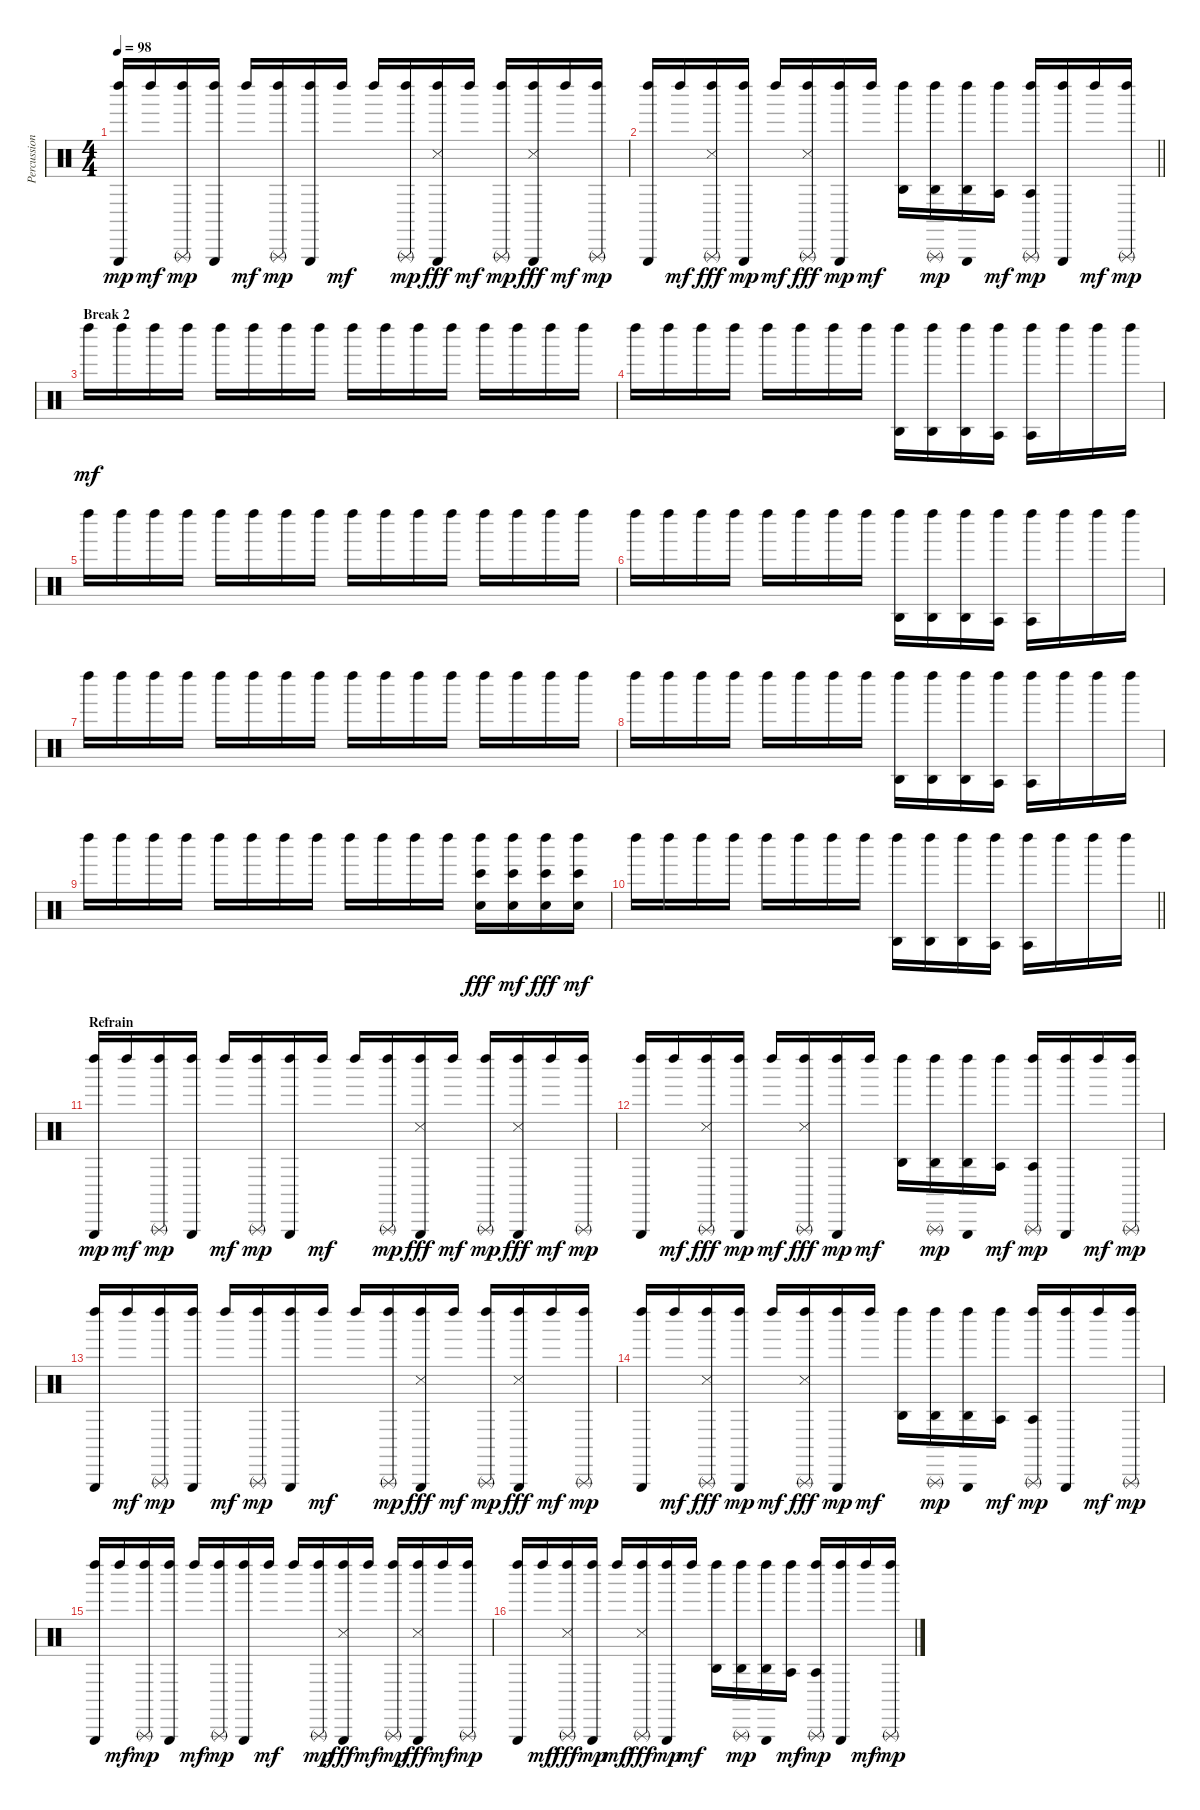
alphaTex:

\track ("Percussions (Dr-0)" "Percussion") {instrument percussion}
\staff {score}
\articulation defaults
\ts (4 4)
\tempo 98
\clef neutral
\ks c
("Left Maraca (hit)" "Triangle (hit)").16{dy mp} "Left Maraca (hit)".16{dy mf} ("Left Maraca (hit)" "Triangle (rnute)").16{dy mp} ("Left Maraca (hit)" "Triangle (hit)").16 "Left Maraca (hit)".16{dy mf} ("Left Maraca (hit)" "Triangle (rnute)").16{dy mp} ("Left Maraca (hit)" "Triangle (hit)").16 "Left Maraca (hit)".16{dy mf} "Left Maraca (hit)".16 ("Left Maraca (hit)" "Triangle (rnute)").16{dy mp} ("Left Maraca (hit)" "Triangle (hit)" "Snare (side stick) 3").16{dy fff} "Left Maraca (hit)".16{dy mf} ("Left Maraca (hit)" "Triangle (rnute)").16{dy mp} ("Left Maraca (hit)" "Triangle (hit)" "Snare (side stick) 3").16{dy fff} "Left Maraca (hit)".16{dy mf} ("Left Maraca (hit)" "Triangle (rnute)").16{dy mp} |
\barLineRight lightlight
("Left Maraca (hit)" "Triangle (hit)").16 "Left Maraca (hit)".16{dy mf} ("Left Maraca (hit)" "Triangle (rnute)" "Snare (side stick) 3").16{dy fff} ("Left Maraca (hit)" "Triangle (hit)").16{dy mp} "Left Maraca (hit)".16{dy mf} ("Left Maraca (hit)" "Triangle (rnute)" "Snare (side stick) 3").16{dy fff} ("Left Maraca (hit)" "Triangle (hit)").16{dy mp} "Left Maraca (hit)".16{dy mf} ("Left Maraca (hit)" "Agogo high (hit)").16 ("Left Maraca (hit)" "Triangle (rnute)" "Agogo high (hit)").16{dy mp} ("Left Maraca (hit)" "Triangle (hit)" "Agogo high (hit)").16 ("Left Maraca (hit)" "Agogo tow (hit)").16{dy mf} ("Left Maraca (hit)" "Triangle (rnute)" "Agogo tow (hit)").16{dy mp} ("Left Maraca (hit)" "Triangle (hit)").16 "Left Maraca (hit)".16{dy mf} ("Left Maraca (hit)" "Triangle (rnute)").16{dy mp} |
\section ("" "Break 2")
"Left Maraca (hit)".16{dy mf} "Left Maraca (hit)".16 "Left Maraca (hit)".16 "Left Maraca (hit)".16 "Left Maraca (hit)".16 "Left Maraca (hit)".16 "Left Maraca (hit)".16 "Left Maraca (hit)".16 "Left Maraca (hit)".16 "Left Maraca (hit)".16 "Left Maraca (hit)".16 "Left Maraca (hit)".16 "Left Maraca (hit)".16 "Left Maraca (hit)".16 "Left Maraca (hit)".16 "Left Maraca (hit)".16 |
"Left Maraca (hit)".16 "Left Maraca (hit)".16 "Left Maraca (hit)".16 "Left Maraca (hit)".16 "Left Maraca (hit)".16 "Left Maraca (hit)".16 "Left Maraca (hit)".16 "Left Maraca (hit)".16 ("Left Maraca (hit)" "Agogo high (hit)").16 ("Left Maraca (hit)" "Agogo high (hit)").16 ("Left Maraca (hit)" "Agogo high (hit)").16 ("Left Maraca (hit)" "Agogo tow (hit)").16 ("Left Maraca (hit)" "Agogo tow (hit)").16 "Left Maraca (hit)".16 "Left Maraca (hit)".16 "Left Maraca (hit)".16 |
"Left Maraca (hit)".16 "Left Maraca (hit)".16 "Left Maraca (hit)".16 "Left Maraca (hit)".16 "Left Maraca (hit)".16 "Left Maraca (hit)".16 "Left Maraca (hit)".16 "Left Maraca (hit)".16 "Left Maraca (hit)".16 "Left Maraca (hit)".16 "Left Maraca (hit)".16 "Left Maraca (hit)".16 "Left Maraca (hit)".16 "Left Maraca (hit)".16 "Left Maraca (hit)".16 "Left Maraca (hit)".16 |
"Left Maraca (hit)".16 "Left Maraca (hit)".16 "Left Maraca (hit)".16 "Left Maraca (hit)".16 "Left Maraca (hit)".16 "Left Maraca (hit)".16 "Left Maraca (hit)".16 "Left Maraca (hit)".16 ("Left Maraca (hit)" "Agogo high (hit)").16 ("Left Maraca (hit)" "Agogo high (hit)").16 ("Left Maraca (hit)" "Agogo high (hit)").16 ("Left Maraca (hit)" "Agogo tow (hit)").16 ("Left Maraca (hit)" "Agogo tow (hit)").16 "Left Maraca (hit)".16 "Left Maraca (hit)".16 "Left Maraca (hit)".16 |
"Left Maraca (hit)".16 "Left Maraca (hit)".16 "Left Maraca (hit)".16 "Left Maraca (hit)".16 "Left Maraca (hit)".16 "Left Maraca (hit)".16 "Left Maraca (hit)".16 "Left Maraca (hit)".16 "Left Maraca (hit)".16 "Left Maraca (hit)".16 "Left Maraca (hit)".16 "Left Maraca (hit)".16 "Left Maraca (hit)".16 "Left Maraca (hit)".16 "Left Maraca (hit)".16 "Left Maraca (hit)".16 |
"Left Maraca (hit)".16 "Left Maraca (hit)".16 "Left Maraca (hit)".16 "Left Maraca (hit)".16 "Left Maraca (hit)".16 "Left Maraca (hit)".16 "Left Maraca (hit)".16 "Left Maraca (hit)".16 ("Left Maraca (hit)" "Agogo high (hit)").16 ("Left Maraca (hit)" "Agogo high (hit)").16 ("Left Maraca (hit)" "Agogo high (hit)").16 ("Left Maraca (hit)" "Agogo tow (hit)").16 ("Left Maraca (hit)" "Agogo tow (hit)").16 "Left Maraca (hit)".16 "Left Maraca (hit)".16 "Left Maraca (hit)".16 |
"Left Maraca (hit)".16 "Left Maraca (hit)".16 "Left Maraca (hit)".16 "Left Maraca (hit)".16 "Left Maraca (hit)".16 "Left Maraca (hit)".16 "Left Maraca (hit)".16 "Left Maraca (hit)".16 "Left Maraca (hit)".16 "Left Maraca (hit)".16 "Left Maraca (hit)".16 "Left Maraca (hit)".16 ("Left Maraca (hit)" "Bongo High (hit)" "Hand Clap (hit)").16{dy fff} ("Left Maraca (hit)" "Bongo High (hit)" "Hand Clap (hit)").16{dy mf} ("Left Maraca (hit)" "Bongo High (hit)" "Hand Clap (hit)").16{dy fff} ("Left Maraca (hit)" "Bongo High (hit)" "Hand Clap (hit)").16{dy mf} |
\barLineRight lightlight "Left Maraca (hit)".16 "Left Maraca (hit)".16 "Left Maraca (hit)".16 "Left Maraca (hit)".16 "Left Maraca (hit)".16 "Left Maraca (hit)".16 "Left Maraca (hit)".16 "Left Maraca (hit)".16
("Left Maraca (hit)" "Agogo high (hit)").16 ("Left Maraca (hit)" "Agogo high (hit)").16 ("Left Maraca (hit)" "Agogo high (hit)").16 ("Left Maraca (hit)" "Agogo tow (hit)").16 ("Left Maraca (hit)" "Agogo tow (hit)").16 "Left Maraca (hit)".16 "Left Maraca (hit)".16 "Left Maraca (hit)".16 |
\section ("" "Refrain")
("Left Maraca (hit)" "Triangle (hit)").16{dy mp} "Left Maraca (hit)".16{dy mf} ("Left Maraca (hit)" "Triangle (rnute)").16{dy mp} ("Left Maraca (hit)" "Triangle (hit)").16 "Left Maraca (hit)".16{dy mf} ("Left Maraca (hit)" "Triangle (rnute)").16{dy mp} ("Left Maraca (hit)" "Triangle (hit)").16 "Left Maraca (hit)".16{dy mf} "Left Maraca (hit)".16 ("Left Maraca (hit)" "Triangle (rnute)").16{dy mp} ("Left Maraca (hit)" "Triangle (hit)" "Snare (side stick) 3").16{dy fff} "Left Maraca (hit)".16{dy mf} ("Left Maraca (hit)" "Triangle (rnute)").16{dy mp} ("Left Maraca (hit)" "Triangle (hit)" "Snare (side stick) 3").16{dy fff} "Left Maraca (hit)".16{dy mf} ("Left Maraca (hit)" "Triangle (rnute)").16{dy mp} |
("Left Maraca (hit)" "Triangle (hit)").16 "Left Maraca (hit)".16{dy mf} ("Left Maraca (hit)" "Triangle (rnute)" "Snare (side stick) 3").16{dy fff} ("Left Maraca (hit)" "Triangle (hit)").16{dy mp} "Left Maraca (hit)".16{dy mf} ("Left Maraca (hit)" "Triangle (rnute)" "Snare (side stick) 3").16{dy fff} ("Left Maraca (hit)" "Triangle (hit)").16{dy mp} "Left Maraca (hit)".16{dy mf} ("Left Maraca (hit)" "Agogo high (hit)").16 ("Left Maraca (hit)" "Triangle (rnute)" "Agogo high (hit)").16{dy mp} ("Left Maraca (hit)" "Triangle (hit)" "Agogo high (hit)").16 ("Left Maraca (hit)" "Agogo tow (hit)").16{dy mf} ("Left Maraca (hit)" "Triangle (rnute)" "Agogo tow (hit)").16{dy mp} ("Left Maraca (hit)" "Triangle (hit)").16 "Left Maraca (hit)".16{dy mf} ("Left Maraca (hit)" "Triangle (rnute)").16{dy mp} |
("Left Maraca (hit)" "Triangle (hit)").16 "Left Maraca (hit)".16{dy mf} ("Left Maraca (hit)" "Triangle (rnute)").16{dy mp} ("Left Maraca (hit)" "Triangle (hit)").16 "Left Maraca (hit)".16{dy mf} ("Left Maraca (hit)" "Triangle (rnute)").16{dy mp} ("Left Maraca (hit)" "Triangle (hit)").16 "Left Maraca (hit)".16{dy mf} "Left Maraca (hit)".16 ("Left Maraca (hit)" "Triangle (rnute)").16{dy mp} ("Left Maraca (hit)" "Triangle (hit)" "Snare (side stick) 3").16{dy fff} "Left Maraca (hit)".16{dy mf} ("Left Maraca (hit)" "Triangle (rnute)").16{dy mp} ("Left Maraca (hit)" "Triangle (hit)" "Snare (side stick) 3").16{dy fff} "Left Maraca (hit)".16{dy mf} ("Left Maraca (hit)" "Triangle (rnute)").16{dy mp} |
("Left Maraca (hit)" "Triangle (hit)").16 "Left Maraca (hit)".16{dy mf} ("Left Maraca (hit)" "Triangle (rnute)" "Snare (side stick) 3").16{dy fff} ("Left Maraca (hit)" "Triangle (hit)").16{dy mp} "Left Maraca (hit)".16{dy mf} ("Left Maraca (hit)" "Triangle (rnute)" "Snare (side stick) 3").16{dy fff} ("Left Maraca (hit)" "Triangle (hit)").16{dy mp} "Left Maraca (hit)".16{dy mf} ("Left Maraca (hit)" "Agogo high (hit)").16 ("Left Maraca (hit)" "Triangle (rnute)" "Agogo high (hit)").16{dy mp} ("Left Maraca (hit)" "Triangle (hit)" "Agogo high (hit)").16 ("Left Maraca (hit)" "Agogo tow (hit)").16{dy mf} ("Left Maraca (hit)" "Triangle (rnute)" "Agogo tow (hit)").16{dy mp} ("Left Maraca (hit)" "Triangle (hit)").16 "Left Maraca (hit)".16{dy mf} ("Left Maraca (hit)" "Triangle (rnute)").16{dy mp} |
("Left Maraca (hit)" "Triangle (hit)").16 "Left Maraca (hit)".16{dy mf} ("Left Maraca (hit)" "Triangle (rnute)").16{dy mp} ("Left Maraca (hit)" "Triangle (hit)").16 "Left Maraca (hit)".16{dy mf} ("Left Maraca (hit)" "Triangle (rnute)").16{dy mp} ("Left Maraca (hit)" "Triangle (hit)").16 "Left Maraca (hit)".16{dy mf} "Left Maraca (hit)".16 ("Left Maraca (hit)" "Triangle (rnute)").16{dy mp} ("Left Maraca (hit)" "Triangle (hit)" "Snare (side stick) 3").16{dy fff} "Left Maraca (hit)".16{dy mf} ("Left Maraca (hit)" "Triangle (rnute)").16{dy mp} ("Left Maraca (hit)" "Triangle (hit)" "Snare (side stick) 3").16{dy fff} "Left Maraca (hit)".16{dy mf} ("Left Maraca (hit)" "Triangle (rnute)").16{dy mp} |
("Left Maraca (hit)" "Triangle (hit)").16 "Left Maraca (hit)".16{dy mf} ("Left Maraca (hit)" "Triangle (rnute)" "Snare (side stick) 3").16{dy fff} ("Left Maraca (hit)" "Triangle (hit)").16{dy mp} "Left Maraca (hit)".16{dy mf} ("Left Maraca (hit)" "Triangle (rnute)" "Snare (side stick) 3").16{dy fff} ("Left Maraca (hit)" "Triangle (hit)").16{dy mp} "Left Maraca (hit)".16{dy mf} ("Left Maraca (hit)" "Agogo high (hit)").16 ("Left Maraca (hit)" "Triangle (rnute)" "Agogo high (hit)").16{dy mp} ("Left Maraca (hit)" "Triangle (hit)" "Agogo high (hit)").16 ("Left Maraca (hit)" "Agogo tow (hit)").16{dy mf} ("Left Maraca (hit)" "Triangle (rnute)" "Agogo tow (hit)").16{dy mp} ("Left Maraca (hit)" "Triangle (hit)").16 "Left Maraca (hit)".16{dy mf} ("Left Maraca (hit)" "Triangle (rnute)").16{dy mp}
